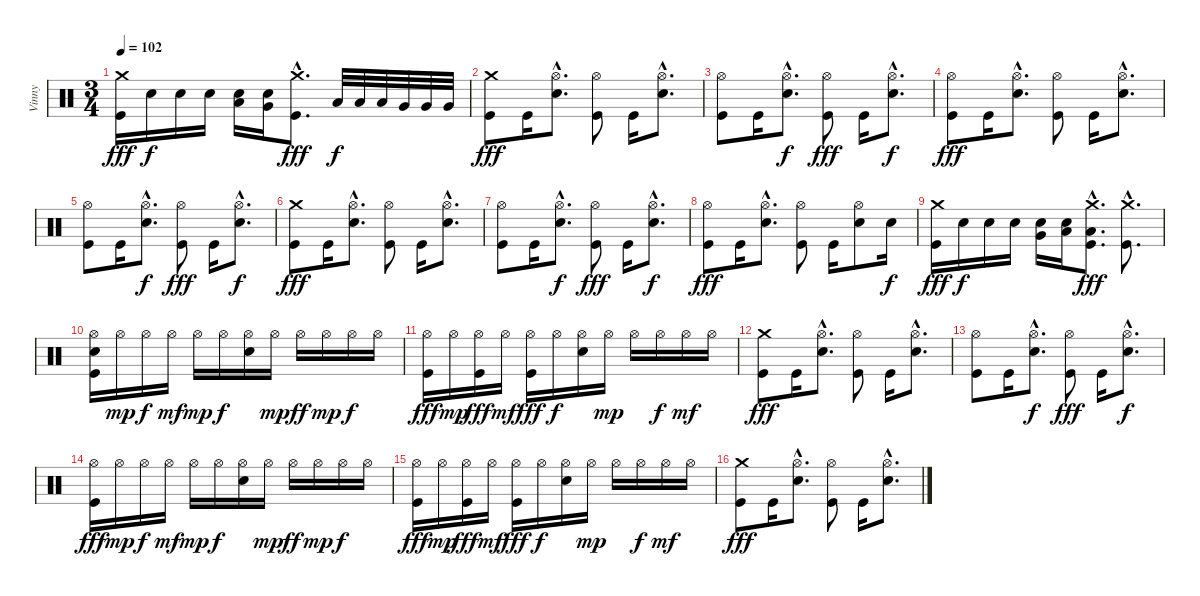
\track ("Vinny" "Vinny") {instrument percussion}
\staff {score}
\articulation defaults
\ts (3 4)
\tempo 102
\clef neutral
\ks c
("Crash medium (hit)" "Kick (hit)").16{dy fff} "Electric Snare (hit)".16{dy f} "Electric Snare (hit)".16 "Electric Snare (hit)".16 ("Electric Snare (hit)" "Low Tom (hit)").16 ("Electric Snare (hit)" "Very Low Tom (hit)").16 ("Crash medium (hit)"{hac} "Kick (hit)"{hac}).8{d dy fff} "Low Tom (hit)".32{dy f} "Low Tom (hit)".32 "Low Tom (hit)".32 "Very Low Tom (hit)".32 "Very Low Tom (hit)".32 "Very Low Tom (hit)".32 |
\section ("" "")
("Crash medium (hit)" "Kick (hit)").8{dy fff} "Kick (hit)".16 ("Hi-Hat (open)"{hac} "Electric Snare (hit)").8{d} ("Hi-Hat (open)" "Kick (hit)").8 "Kick (hit)".16 ("Hi-Hat (open)"{hac} "Electric Snare (hit)").8{d} |
("Hi-Hat (open)" "Kick (hit)").8 "Kick (hit)".16 ("Hi-Hat (open)"{hac} "Electric Snare (hit)"{hac}).8{d dy f} ("Hi-Hat (open)" "Kick (hit)").8{dy fff} "Kick (hit)".16 ("Hi-Hat (open)"{hac} "Electric Snare (hit)"{hac}).8{d dy f} |
("Hi-Hat (open)" "Kick (hit)").8{dy fff} "Kick (hit)".16 ("Hi-Hat (open)"{hac} "Electric Snare (hit)").8{d} ("Hi-Hat (open)" "Kick (hit)").8 "Kick (hit)".16 ("Hi-Hat (open)"{hac} "Electric Snare (hit)").8{d} |
("Hi-Hat (open)" "Kick (hit)").8 "Kick (hit)".16 ("Hi-Hat (open)"{hac} "Electric Snare (hit)"{hac}).8{d dy f} ("Hi-Hat (open)" "Kick (hit)").8{dy fff} "Kick (hit)".16 ("Hi-Hat (open)"{hac} "Electric Snare (hit)"{hac}).8{d dy f} |
("Crash medium (hit)" "Kick (hit)").8{dy fff} "Kick (hit)".16 ("Hi-Hat (open)"{hac} "Electric Snare (hit)").8{d} ("Hi-Hat (open)" "Kick (hit)").8 "Kick (hit)".16 ("Hi-Hat (open)"{hac} "Electric Snare (hit)").8{d} |
("Hi-Hat (open)" "Kick (hit)").8 "Kick (hit)".16 ("Hi-Hat (open)"{hac} "Electric Snare (hit)"{hac}).8{d dy f} ("Hi-Hat (open)" "Kick (hit)").8{dy fff} "Kick (hit)".16 ("Hi-Hat (open)"{hac} "Electric Snare (hit)"{hac}).8{d dy f} |
("Hi-Hat (open)" "Kick (hit)").8{dy fff} "Kick (hit)".16 ("Hi-Hat (open)"{hac} "Electric Snare (hit)").8{d} ("Hi-Hat (open)" "Kick (hit)").8 "Kick (hit)".16 ("Hi-Hat (open)" "Electric Snare (hit)").8 "Electric Snare (hit)".16{dy f} |
("Crash medium (hit)" "Kick (hit)").16{dy fff} "Electric Snare (hit)".16{dy f} "Electric Snare (hit)".16 "Electric Snare (hit)".16 ("Electric Snare (hit)" "Very Low Tom (hit)").16 ("Electric Snare (hit)" "Low Floor Tom (hit)").16 ("Crash medium (hit)"{hac} "Low Floor Tom (hit)"{hac} "Kick (hit)"{hac}).8{d dy fff} ("Crash medium (hit)"{hac} "Kick (hit)"{hac}).8{d} |
("Hi-Hat (open)" "Electric Snare (hit)" "Kick (hit)").16 "Hi-Hat (open)".16{dy mp} "Hi-Hat (open)".16{dy f} "Hi-Hat (open)".16{dy mf} "Hi-Hat (open)".16{dy mp} "Hi-Hat (open)".16{dy f} ("Hi-Hat (open)" "Electric Snare (hit)").16 "Hi-Hat (open)".16{dy mp} "Hi-Hat (open)".16{dy ff} "Hi-Hat (open)".16{dy mp} "Hi-Hat (open)".16{dy f} "Hi-Hat (open)".16 |
("Hi-Hat (open)" "Kick (hit)").16{dy fff} "Hi-Hat (open)".16{dy mp} ("Hi-Hat (open)" "Kick (hit)").16{dy fff} "Hi-Hat (open)".16{dy mf} ("Hi-Hat (open)" "Kick (hit)").16{dy fff} "Hi-Hat (open)".16{dy f} ("Hi-Hat (open)" "Electric Snare (hit)").16 "Hi-Hat (open)".16{dy mp} "Hi-Hat (open)".16 "Hi-Hat (open)".16{dy f} "Hi-Hat (open)".16{dy mf} "Hi-Hat (open)".16 |
("Crash medium (hit)" "Kick (hit)").8{dy fff} "Kick (hit)".16 ("Hi-Hat (open)"{hac} "Electric Snare (hit)").8{d} ("Hi-Hat (open)" "Kick (hit)").8 "Kick (hit)".16 ("Hi-Hat (open)"{hac} "Electric Snare (hit)").8{d} |
("Hi-Hat (open)" "Kick (hit)").8 "Kick (hit)".16 ("Hi-Hat (open)"{hac} "Electric Snare (hit)"{hac}).8{d dy f} ("Hi-Hat (open)" "Kick (hit)").8{dy fff} "Kick (hit)".16 ("Hi-Hat (open)"{hac} "Electric Snare (hit)"{hac}).8{d dy f} |
("Hi-Hat (open)" "Kick (hit)").16{dy fff} "Hi-Hat (open)".16{dy mp} "Hi-Hat (open)".16{dy f} "Hi-Hat (open)".16{dy mf} "Hi-Hat (open)".16{dy mp} "Hi-Hat (open)".16{dy f} ("Hi-Hat (open)" "Electric Snare (hit)").16 "Hi-Hat (open)".16{dy mp} "Hi-Hat (open)".16{dy ff} "Hi-Hat (open)".16{dy mp} "Hi-Hat (open)".16{dy f} "Hi-Hat (open)".16 |
("Hi-Hat (open)" "Kick (hit)").16{dy fff} "Hi-Hat (open)".16{dy mp} ("Hi-Hat (open)" "Kick (hit)").16{dy fff} "Hi-Hat (open)".16{dy mf} ("Hi-Hat (open)" "Kick (hit)").16{dy fff} "Hi-Hat (open)".16{dy f} ("Hi-Hat (open)" "Electric Snare (hit)").16 "Hi-Hat (open)".16{dy mp} "Hi-Hat (open)".16 "Hi-Hat (open)".16{dy f} "Hi-Hat (open)".16{dy mf} "Hi-Hat (open)".16 |
("Crash medium (hit)" "Kick (hit)").8{dy fff} "Kick (hit)".16 ("Hi-Hat (open)"{hac} "Electric Snare (hit)").8{d} ("Hi-Hat (open)" "Kick (hit)").8 "Kick (hit)".16 ("Hi-Hat (open)"{hac} "Electric Snare (hit)"{hac}).8{d}
